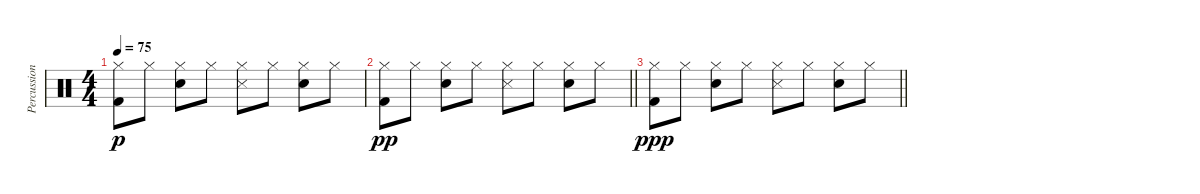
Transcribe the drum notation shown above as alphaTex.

\track ("Percussion" "Percussion") {instrument percussion}
\staff {score}
\articulation defaults
\ts (4 4)
\tempo 75
\clef neutral
\ks c
("Kick (hit) 2" "Hi-Hat (closed)").8{dy p} "Hi-Hat (closed)".8 ("Snare (hit) 2" "Hi-Hat (closed)").8 "Hi-Hat (closed)".8 ("Snare (side stick) 3" "Hi-Hat (closed)").8 "Hi-Hat (closed)".8 ("Snare (hit) 2" "Hi-Hat (closed)").8 "Hi-Hat (closed)".8 |
\barLineRight lightlight
("Kick (hit) 2" "Hi-Hat (closed)").8{dy pp} "Hi-Hat (closed)".8 ("Snare (hit) 2" "Hi-Hat (closed)").8 "Hi-Hat (closed)".8 ("Snare (side stick) 3" "Hi-Hat (closed)").8 "Hi-Hat (closed)".8 ("Snare (hit) 2" "Hi-Hat (closed)").8 "Hi-Hat (closed)".8 |
\barLineRight lightlight
("Kick (hit) 2" "Hi-Hat (closed)").8{dy ppp} "Hi-Hat (closed)".8 ("Snare (hit) 2" "Hi-Hat (closed)").8 "Hi-Hat (closed)".8 ("Snare (side stick) 3" "Hi-Hat (closed)").8 "Hi-Hat (closed)".8 ("Snare (hit) 2" "Hi-Hat (closed)").8 "Hi-Hat (closed)".8
